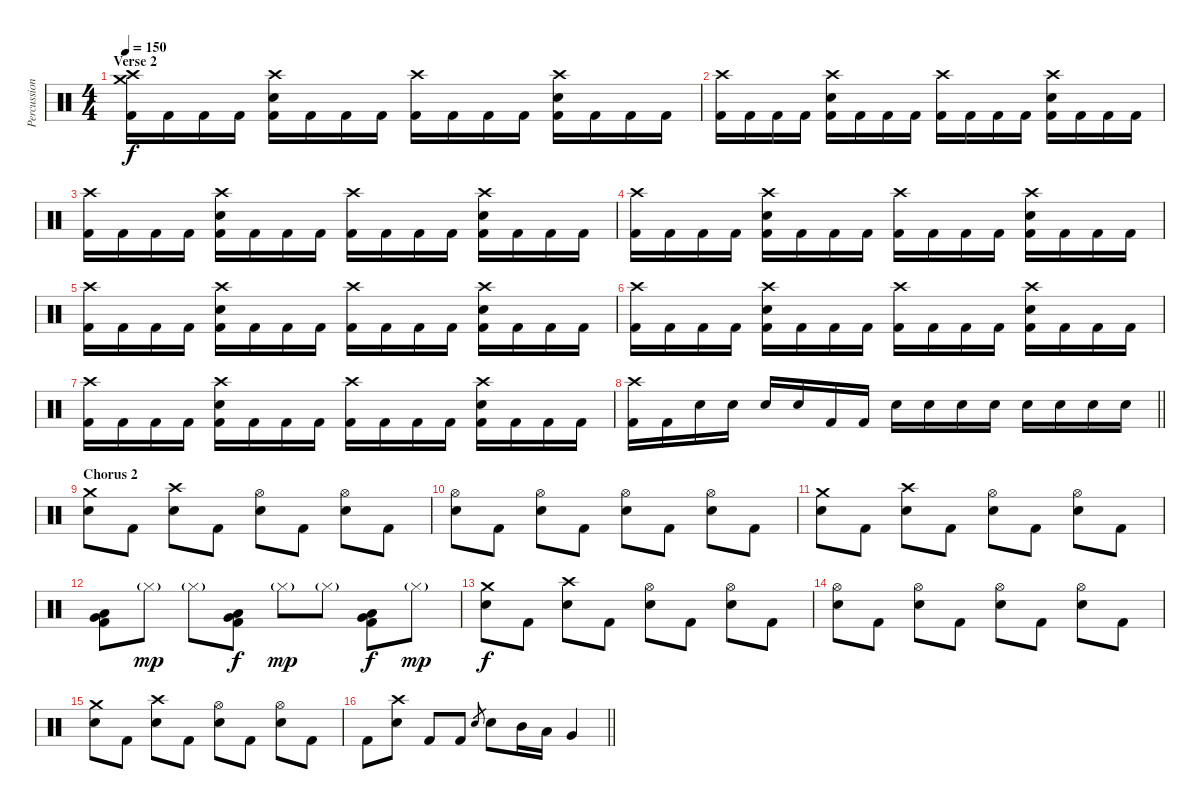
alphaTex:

\track ("Percussion" "Percussion") {instrument percussion}
\staff {score}
\articulation defaults
\ts (4 4)
\section ("" "Verse 2")
\tempo 150
\clef neutral
\ks c
("Crash high (hit)" "Crash medium (hit)" "Kick (hit) 2").16{dy f} "Kick (hit) 2".16 "Kick (hit) 2".16 "Kick (hit) 2".16 ("Crash high (hit)" "Electric Snare (hit)" "Kick (hit) 2").16 "Kick (hit) 2".16 "Kick (hit) 2".16 "Kick (hit) 2".16 ("Crash high (hit)" "Kick (hit) 2").16 "Kick (hit) 2".16 "Kick (hit) 2".16 "Kick (hit) 2".16 ("Crash high (hit)" "Electric Snare (hit)" "Kick (hit) 2").16 "Kick (hit) 2".16 "Kick (hit) 2".16 "Kick (hit) 2".16 |
("Crash high (hit)" "Kick (hit) 2").16 "Kick (hit) 2".16 "Kick (hit) 2".16 "Kick (hit) 2".16 ("Crash high (hit)" "Electric Snare (hit)" "Kick (hit) 2").16 "Kick (hit) 2".16 "Kick (hit) 2".16 "Kick (hit) 2".16 ("Crash high (hit)" "Kick (hit) 2").16 "Kick (hit) 2".16 "Kick (hit) 2".16 "Kick (hit) 2".16 ("Crash high (hit)" "Electric Snare (hit)" "Kick (hit) 2").16 "Kick (hit) 2".16 "Kick (hit) 2".16 "Kick (hit) 2".16 |
("Crash high (hit)" "Kick (hit) 2").16 "Kick (hit) 2".16 "Kick (hit) 2".16 "Kick (hit) 2".16 ("Crash high (hit)" "Electric Snare (hit)" "Kick (hit) 2").16 "Kick (hit) 2".16 "Kick (hit) 2".16 "Kick (hit) 2".16 ("Crash high (hit)" "Kick (hit) 2").16 "Kick (hit) 2".16 "Kick (hit) 2".16 "Kick (hit) 2".16 ("Crash high (hit)" "Electric Snare (hit)" "Kick (hit) 2").16 "Kick (hit) 2".16 "Kick (hit) 2".16 "Kick (hit) 2".16 |
("Crash high (hit)" "Kick (hit) 2").16 "Kick (hit) 2".16 "Kick (hit) 2".16 "Kick (hit) 2".16 ("Crash high (hit)" "Electric Snare (hit)" "Kick (hit) 2").16 "Kick (hit) 2".16 "Kick (hit) 2".16 "Kick (hit) 2".16 ("Crash high (hit)" "Kick (hit) 2").16 "Kick (hit) 2".16 "Kick (hit) 2".16 "Kick (hit) 2".16 ("Crash high (hit)" "Electric Snare (hit)" "Kick (hit) 2").16 "Kick (hit) 2".16 "Kick (hit) 2".16 "Kick (hit) 2".16 |
("Crash high (hit)" "Kick (hit) 2").16 "Kick (hit) 2".16 "Kick (hit) 2".16 "Kick (hit) 2".16 ("Crash high (hit)" "Electric Snare (hit)" "Kick (hit) 2").16 "Kick (hit) 2".16 "Kick (hit) 2".16 "Kick (hit) 2".16 ("Crash high (hit)" "Kick (hit) 2").16 "Kick (hit) 2".16 "Kick (hit) 2".16 "Kick (hit) 2".16 ("Crash high (hit)" "Electric Snare (hit)" "Kick (hit) 2").16 "Kick (hit) 2".16 "Kick (hit) 2".16 "Kick (hit) 2".16 |
("Crash high (hit)" "Kick (hit) 2").16 "Kick (hit) 2".16 "Kick (hit) 2".16 "Kick (hit) 2".16 ("Crash high (hit)" "Electric Snare (hit)" "Kick (hit) 2").16 "Kick (hit) 2".16 "Kick (hit) 2".16 "Kick (hit) 2".16 ("Crash high (hit)" "Kick (hit) 2").16 "Kick (hit) 2".16 "Kick (hit) 2".16 "Kick (hit) 2".16 ("Crash high (hit)" "Electric Snare (hit)" "Kick (hit) 2").16 "Kick (hit) 2".16 "Kick (hit) 2".16 "Kick (hit) 2".16 |
("Crash high (hit)" "Kick (hit) 2").16 "Kick (hit) 2".16 "Kick (hit) 2".16 "Kick (hit) 2".16 ("Crash high (hit)" "Electric Snare (hit)" "Kick (hit) 2").16 "Kick (hit) 2".16 "Kick (hit) 2".16 "Kick (hit) 2".16 ("Crash high (hit)" "Kick (hit) 2").16 "Kick (hit) 2".16 "Kick (hit) 2".16 "Kick (hit) 2".16 ("Crash high (hit)" "Electric Snare (hit)" "Kick (hit) 2").16 "Kick (hit) 2".16 "Kick (hit) 2".16 "Kick (hit) 2".16 |
\barLineRight lightlight
("Crash high (hit)" "Kick (hit) 2").16 "Kick (hit) 2".16 "Electric Snare (hit)".16 "Electric Snare (hit)".16 "Electric Snare (hit)".16 "Electric Snare (hit)".16 "Kick (hit) 2".16 "Kick (hit) 2".16 "Electric Snare (hit)".16 "Electric Snare (hit)".16 "Electric Snare (hit)".16 "Electric Snare (hit)".16 "Electric Snare (hit)".16 "Electric Snare (hit)".16 "Electric Snare (hit)".16 "Electric Snare (hit)".16 |
\section ("" "Chorus 2")
("Crash medium (hit)" "Electric Snare (hit)").8 "Kick (hit) 2".8 ("Crash high (hit)" "Electric Snare (hit)").8 "Kick (hit) 2".8 ("Hi-Hat (open)" "Electric Snare (hit)").8 "Kick (hit) 2".8 ("Hi-Hat (open)" "Electric Snare (hit)").8 "Kick (hit) 2".8 |
("Hi-Hat (open)" "Electric Snare (hit)").8 "Kick (hit) 2".8 ("Hi-Hat (open)" "Electric Snare (hit)").8 "Kick (hit) 2".8 ("Hi-Hat (open)" "Electric Snare (hit)").8 "Kick (hit) 2".8 ("Hi-Hat (open)" "Electric Snare (hit)").8 "Kick (hit) 2".8 |
("Crash medium (hit)" "Electric Snare (hit)").8 "Kick (hit) 2".8 ("Crash high (hit)" "Electric Snare (hit)").8 "Kick (hit) 2".8 ("Hi-Hat (open)" "Electric Snare (hit)").8 "Kick (hit) 2".8 ("Hi-Hat (open)" "Electric Snare (hit)").8 "Kick (hit) 2".8 |
("Very Low Tom (hit)" "Low Tom (hit)" "Kick (hit) 2").8 "Hi-Hat (closed)"{g}.8{dy mp} "Hi-Hat (closed)"{g}.8 ("Very Low Tom (hit)" "Low Tom (hit)" "Kick (hit) 2").8{dy f} "Hi-Hat (closed)"{g}.8{dy mp} "Hi-Hat (closed)"{g}.8 ("Very Low Tom (hit)" "Low Tom (hit)" "Kick (hit) 2").8{dy f} "Hi-Hat (closed)"{g}.8{dy mp} |
("Crash medium (hit)" "Electric Snare (hit)").8{dy f} "Kick (hit) 2".8 ("Crash high (hit)" "Electric Snare (hit)").8 "Kick (hit) 2".8 ("Hi-Hat (open)" "Electric Snare (hit)").8 "Kick (hit) 2".8 ("Hi-Hat (open)" "Electric Snare (hit)").8 "Kick (hit) 2".8 |
("Hi-Hat (open)" "Electric Snare (hit)").8 "Kick (hit) 2".8 ("Hi-Hat (open)" "Electric Snare (hit)").8 "Kick (hit) 2".8 ("Hi-Hat (open)" "Electric Snare (hit)").8 "Kick (hit) 2".8 ("Hi-Hat (open)" "Electric Snare (hit)").8 "Kick (hit) 2".8 |
("Crash medium (hit)" "Electric Snare (hit)").8 "Kick (hit) 2".8 ("Crash high (hit)" "Electric Snare (hit)").8 "Kick (hit) 2".8 ("Hi-Hat (open)" "Electric Snare (hit)").8 "Kick (hit) 2".8 ("Hi-Hat (open)" "Electric Snare (hit)").8 "Kick (hit) 2".8 |
\barLineRight lightlight "Kick (hit) 2".8
("Crash high (hit)" "Electric Snare (hit)").8 "Kick (hit) 2".8 "Kick (hit) 2".8 "Electric Snare (hit)".8{gr} "Electric Snare (hit)".8 "Mid Tom (hit)".16 "Low Tom (hit)".16 "Very Low Tom (hit)".4
